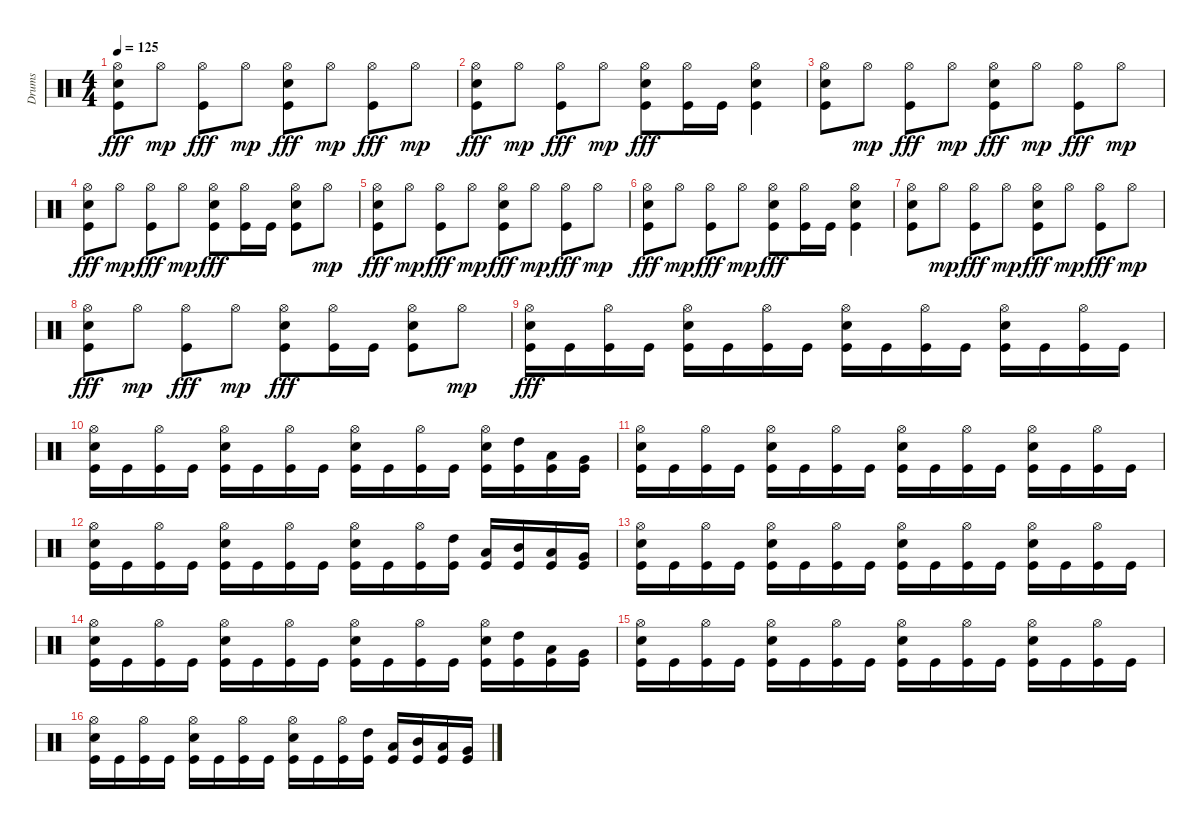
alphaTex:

\track ("Drums" "Drums") {instrument percussion}
\staff {score}
\articulation defaults
\ts (4 4)
\tempo 125
\clef neutral
\ks c
("Hi-Hat (open)" "Snare (hit) 2" "Kick (hit)").8{dy fff} "Hi-Hat (open)".8{dy mp} ("Hi-Hat (open)" "Kick (hit)").8{dy fff} "Hi-Hat (open)".8{dy mp} ("Hi-Hat (open)" "Snare (hit) 2" "Kick (hit)").8{dy fff} "Hi-Hat (open)".8{dy mp} ("Hi-Hat (open)" "Kick (hit)").8{dy fff} "Hi-Hat (open)".8{dy mp} |
("Hi-Hat (open)" "Snare (hit) 2" "Kick (hit)").8{dy fff} "Hi-Hat (open)".8{dy mp} ("Hi-Hat (open)" "Kick (hit)").8{dy fff} "Hi-Hat (open)".8{dy mp} ("Hi-Hat (open)" "Snare (hit) 2" "Kick (hit)").8{dy fff} ("Hi-Hat (open)" "Kick (hit)").16 "Kick (hit)".16 ("Hi-Hat (open)" "Electric Snare (hit)" "Kick (hit)").4 |
("Hi-Hat (open)" "Snare (hit) 2" "Kick (hit)").8 "Hi-Hat (open)".8{dy mp} ("Hi-Hat (open)" "Kick (hit)").8{dy fff} "Hi-Hat (open)".8{dy mp} ("Hi-Hat (open)" "Snare (hit) 2" "Kick (hit)").8{dy fff} "Hi-Hat (open)".8{dy mp} ("Hi-Hat (open)" "Kick (hit)").8{dy fff} "Hi-Hat (open)".8{dy mp} |
("Hi-Hat (open)" "Snare (hit) 2" "Kick (hit)").8{dy fff} "Hi-Hat (open)".8{dy mp} ("Hi-Hat (open)" "Kick (hit)").8{dy fff} "Hi-Hat (open)".8{dy mp} ("Hi-Hat (open)" "Snare (hit) 2" "Kick (hit)").8{dy fff} ("Hi-Hat (open)" "Kick (hit)").16 "Kick (hit)".16 ("Hi-Hat (open)" "Electric Snare (hit)" "Kick (hit)").8 "Hi-Hat (open)".8{dy mp} |
("Hi-Hat (open)" "Snare (hit) 2" "Kick (hit)").8{dy fff} "Hi-Hat (open)".8{dy mp} ("Hi-Hat (open)" "Kick (hit)").8{dy fff} "Hi-Hat (open)".8{dy mp} ("Hi-Hat (open)" "Snare (hit) 2" "Kick (hit)").8{dy fff} "Hi-Hat (open)".8{dy mp} ("Hi-Hat (open)" "Kick (hit)").8{dy fff} "Hi-Hat (open)".8{dy mp} |
("Hi-Hat (open)" "Snare (hit) 2" "Kick (hit)").8{dy fff} "Hi-Hat (open)".8{dy mp} ("Hi-Hat (open)" "Kick (hit)").8{dy fff} "Hi-Hat (open)".8{dy mp} ("Hi-Hat (open)" "Snare (hit) 2" "Kick (hit)").8{dy fff} ("Hi-Hat (open)" "Kick (hit)").16 "Kick (hit)".16 ("Hi-Hat (open)" "Electric Snare (hit)" "Kick (hit)").4 |
("Hi-Hat (open)" "Snare (hit) 2" "Kick (hit)").8 "Hi-Hat (open)".8{dy mp} ("Hi-Hat (open)" "Kick (hit)").8{dy fff} "Hi-Hat (open)".8{dy mp} ("Hi-Hat (open)" "Snare (hit) 2" "Kick (hit)").8{dy fff} "Hi-Hat (open)".8{dy mp} ("Hi-Hat (open)" "Kick (hit)").8{dy fff} "Hi-Hat (open)".8{dy mp} |
("Hi-Hat (open)" "Snare (hit) 2" "Kick (hit)").8{dy fff} "Hi-Hat (open)".8{dy mp} ("Hi-Hat (open)" "Kick (hit)").8{dy fff} "Hi-Hat (open)".8{dy mp} ("Hi-Hat (open)" "Snare (hit) 2" "Kick (hit)").8{dy fff} ("Hi-Hat (open)" "Kick (hit)").16 "Kick (hit)".16 ("Hi-Hat (open)" "Electric Snare (hit)" "Kick (hit)").8 "Hi-Hat (open)".8{dy mp} |
("Hi-Hat (open)" "Electric Snare (hit)" "Kick (hit)").16{dy fff} "Kick (hit)".16 ("Hi-Hat (open)" "Kick (hit)").16 "Kick (hit)".16 ("Hi-Hat (open)" "Electric Snare (hit)" "Kick (hit)").16 "Kick (hit)".16 ("Hi-Hat (open)" "Kick (hit)").16 "Kick (hit)".16 ("Hi-Hat (open)" "Electric Snare (hit)" "Kick (hit)").16 "Kick (hit)".16 ("Hi-Hat (open)" "Kick (hit)").16 "Kick (hit)".16 ("Hi-Hat (open)" "Electric Snare (hit)" "Kick (hit)").16 "Kick (hit)".16 ("Hi-Hat (open)" "Kick (hit)").16 "Kick (hit)".16 |
("Hi-Hat (open)" "Electric Snare (hit)" "Kick (hit)").16 "Kick (hit)".16 ("Hi-Hat (open)" "Kick (hit)").16 "Kick (hit)".16 ("Hi-Hat (open)" "Electric Snare (hit)" "Kick (hit)").16 "Kick (hit)".16 ("Hi-Hat (open)" "Kick (hit)").16 "Kick (hit)".16 ("Hi-Hat (open)" "Electric Snare (hit)" "Kick (hit)").16 "Kick (hit)".16 ("Hi-Hat (open)" "Kick (hit)").16 "Kick (hit)".16 ("Hi-Hat (open)" "Electric Snare (hit)" "Kick (hit)").16 ("High Tom (hit)" "Kick (hit)").16 ("Low Tom (hit)" "Kick (hit)").16 ("Very Low Tom (hit)" "Kick (hit)").16 |
("Hi-Hat (open)" "Electric Snare (hit)" "Kick (hit)").16 "Kick (hit)".16 ("Hi-Hat (open)" "Kick (hit)").16 "Kick (hit)".16 ("Hi-Hat (open)" "Electric Snare (hit)" "Kick (hit)").16 "Kick (hit)".16 ("Hi-Hat (open)" "Kick (hit)").16 "Kick (hit)".16 ("Hi-Hat (open)" "Electric Snare (hit)" "Kick (hit)").16 "Kick (hit)".16 ("Hi-Hat (open)" "Kick (hit)").16 "Kick (hit)".16 ("Hi-Hat (open)" "Electric Snare (hit)" "Kick (hit)").16 "Kick (hit)".16 ("Hi-Hat (open)" "Kick (hit)").16 "Kick (hit)".16 |
("Hi-Hat (open)" "Electric Snare (hit)" "Kick (hit)").16 "Kick (hit)".16 ("Hi-Hat (open)" "Kick (hit)").16 "Kick (hit)".16 ("Hi-Hat (open)" "Electric Snare (hit)" "Kick (hit)").16 "Kick (hit)".16 ("Hi-Hat (open)" "Kick (hit)").16 "Kick (hit)".16 ("Hi-Hat (open)" "Electric Snare (hit)" "Kick (hit)").16 "Kick (hit)".16 ("Hi-Hat (open)" "Kick (hit)").16 ("High Tom (hit)" "Kick (hit)").16 ("Low Tom (hit)" "Kick (hit)").16 ("Mid Tom (hit)" "Kick (hit)").16 ("Low Tom (hit)" "Kick (hit)").16 ("Very Low Tom (hit)" "Kick (hit)").16 |
("Hi-Hat (open)" "Electric Snare (hit)" "Kick (hit)").16 "Kick (hit)".16 ("Hi-Hat (open)" "Kick (hit)").16 "Kick (hit)".16 ("Hi-Hat (open)" "Electric Snare (hit)" "Kick (hit)").16 "Kick (hit)".16 ("Hi-Hat (open)" "Kick (hit)").16 "Kick (hit)".16 ("Hi-Hat (open)" "Electric Snare (hit)" "Kick (hit)").16 "Kick (hit)".16 ("Hi-Hat (open)" "Kick (hit)").16 "Kick (hit)".16 ("Hi-Hat (open)" "Electric Snare (hit)" "Kick (hit)").16 "Kick (hit)".16 ("Hi-Hat (open)" "Kick (hit)").16 "Kick (hit)".16 |
("Hi-Hat (open)" "Electric Snare (hit)" "Kick (hit)").16 "Kick (hit)".16 ("Hi-Hat (open)" "Kick (hit)").16 "Kick (hit)".16 ("Hi-Hat (open)" "Electric Snare (hit)" "Kick (hit)").16 "Kick (hit)".16 ("Hi-Hat (open)" "Kick (hit)").16 "Kick (hit)".16 ("Hi-Hat (open)" "Electric Snare (hit)" "Kick (hit)").16 "Kick (hit)".16 ("Hi-Hat (open)" "Kick (hit)").16 "Kick (hit)".16 ("Hi-Hat (open)" "Electric Snare (hit)" "Kick (hit)").16 ("High Tom (hit)" "Kick (hit)").16 ("Low Tom (hit)" "Kick (hit)").16 ("Very Low Tom (hit)" "Kick (hit)").16 |
("Hi-Hat (open)" "Electric Snare (hit)" "Kick (hit)").16 "Kick (hit)".16 ("Hi-Hat (open)" "Kick (hit)").16 "Kick (hit)".16 ("Hi-Hat (open)" "Electric Snare (hit)" "Kick (hit)").16 "Kick (hit)".16 ("Hi-Hat (open)" "Kick (hit)").16 "Kick (hit)".16 ("Hi-Hat (open)" "Electric Snare (hit)" "Kick (hit)").16 "Kick (hit)".16 ("Hi-Hat (open)" "Kick (hit)").16 "Kick (hit)".16 ("Hi-Hat (open)" "Electric Snare (hit)" "Kick (hit)").16 "Kick (hit)".16 ("Hi-Hat (open)" "Kick (hit)").16 "Kick (hit)".16 |
("Hi-Hat (open)" "Electric Snare (hit)" "Kick (hit)").16 "Kick (hit)".16 ("Hi-Hat (open)" "Kick (hit)").16 "Kick (hit)".16 ("Hi-Hat (open)" "Electric Snare (hit)" "Kick (hit)").16 "Kick (hit)".16 ("Hi-Hat (open)" "Kick (hit)").16 "Kick (hit)".16 ("Hi-Hat (open)" "Electric Snare (hit)" "Kick (hit)").16 "Kick (hit)".16 ("Hi-Hat (open)" "Kick (hit)").16 ("High Tom (hit)" "Kick (hit)").16 ("Low Tom (hit)" "Kick (hit)").16 ("Mid Tom (hit)" "Kick (hit)").16 ("Low Tom (hit)" "Kick (hit)").16 ("Very Low Tom (hit)" "Kick (hit)").16
